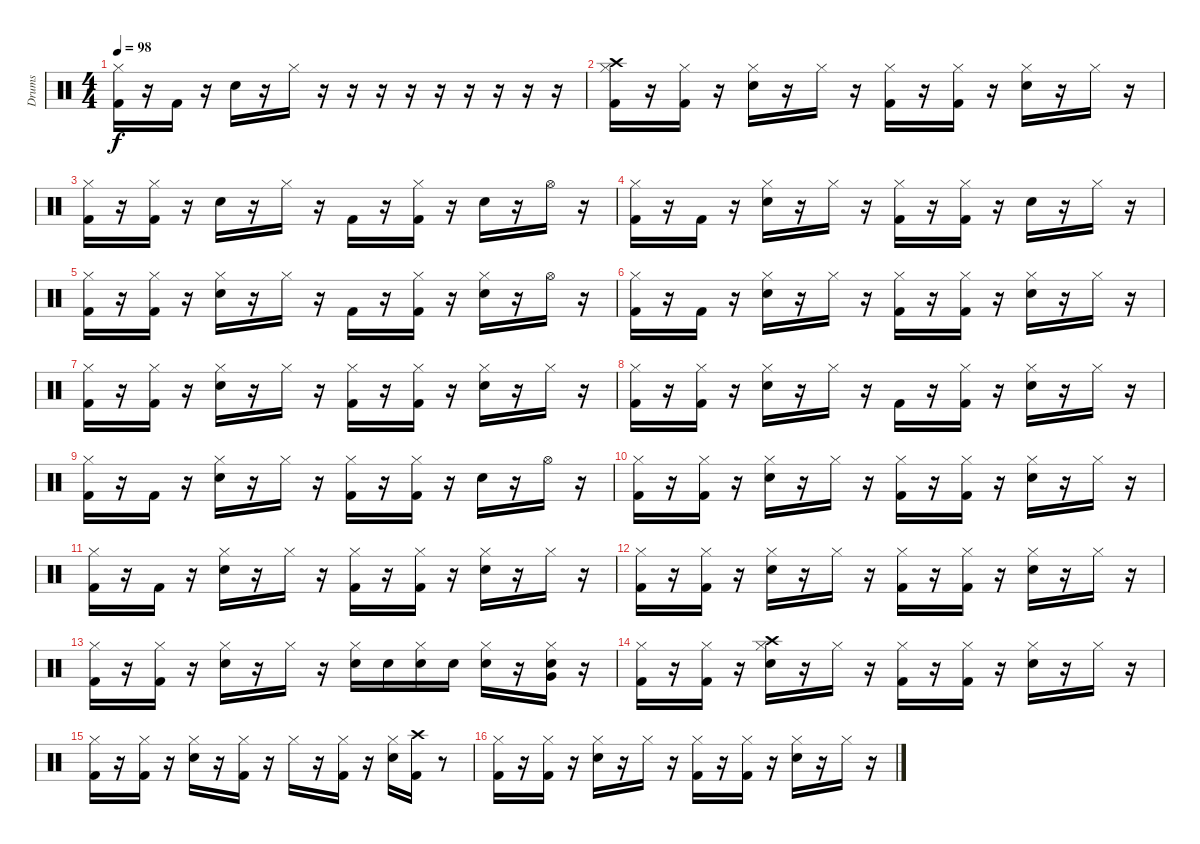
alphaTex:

\track ("Drums" "Drums") {instrument percussion}
\staff {score}
\articulation defaults
\ts (4 4)
\tempo 98
\clef neutral
\ks c
("Kick (hit) 2" "Hi-Hat (closed)").16{dy f} r.16 "Kick (hit) 2".16 r.16 "Snare (hit) 2".16 r.16 "Hi-Hat (closed)".16 r.16 r.16 r.16 r.16 r.16 r.16 r.16 r.16 r.16 |
("Kick (hit) 2" "Hi-Hat (closed)" "Crash high (hit)").16 r.16 ("Kick (hit) 2" "Hi-Hat (closed)").16 r.16 ("Snare (hit) 2" "Hi-Hat (closed)").16 r.16 "Hi-Hat (closed)".16 r.16 ("Kick (hit) 2" "Hi-Hat (closed)").16 r.16 ("Kick (hit) 2" "Hi-Hat (closed)").16 r.16 ("Snare (hit) 2" "Hi-Hat (closed)").16 r.16 "Hi-Hat (closed)".16 r.16 |
("Kick (hit) 2" "Hi-Hat (closed)").16 r.16 ("Kick (hit) 2" "Hi-Hat (closed)").16 r.16 "Snare (hit) 2".16 r.16 "Hi-Hat (closed)".16 r.16 "Kick (hit) 2".16 r.16 ("Kick (hit) 2" "Hi-Hat (closed)").16 r.16 "Snare (hit) 2".16 r.16 "Hi-Hat (open)".16 r.16 |
("Kick (hit) 2" "Hi-Hat (closed)").16 r.16 "Kick (hit) 2".16 r.16 ("Snare (hit) 2" "Hi-Hat (closed)").16 r.16 "Hi-Hat (closed)".16 r.16 ("Kick (hit) 2" "Hi-Hat (closed)").16 r.16 ("Kick (hit) 2" "Hi-Hat (closed)").16 r.16 "Snare (hit) 2".16 r.16 "Hi-Hat (closed)".16 r.16 |
("Kick (hit) 2" "Hi-Hat (closed)").16 r.16 ("Kick (hit) 2" "Hi-Hat (closed)").16 r.16 ("Snare (hit) 2" "Hi-Hat (closed)").16 r.16 "Hi-Hat (closed)".16 r.16 "Kick (hit) 2".16 r.16 ("Kick (hit) 2" "Hi-Hat (closed)").16 r.16 ("Snare (hit) 2" "Hi-Hat (closed)").16 r.16 "Hi-Hat (open)".16 r.16 |
("Kick (hit) 2" "Hi-Hat (closed)").16 r.16 "Kick (hit) 2".16 r.16 ("Snare (hit) 2" "Hi-Hat (closed)").16 r.16 "Hi-Hat (closed)".16 r.16 ("Kick (hit) 2" "Hi-Hat (closed)").16 r.16 ("Kick (hit) 2" "Hi-Hat (closed)").16 r.16 ("Snare (hit) 2" "Hi-Hat (closed)").16 r.16 "Hi-Hat (closed)".16 r.16 |
("Kick (hit) 2" "Hi-Hat (closed)").16 r.16 ("Kick (hit) 2" "Hi-Hat (closed)").16 r.16 ("Snare (hit) 2" "Hi-Hat (closed)").16 r.16 "Hi-Hat (closed)".16 r.16 ("Kick (hit) 2" "Hi-Hat (closed)").16 r.16 ("Kick (hit) 2" "Hi-Hat (closed)").16 r.16 ("Snare (hit) 2" "Hi-Hat (closed)").16 r.16 "Hi-Hat (closed)".16 r.16 |
("Kick (hit) 2" "Hi-Hat (closed)").16 r.16 ("Kick (hit) 2" "Hi-Hat (closed)").16 r.16 ("Snare (hit) 2" "Hi-Hat (closed)").16 r.16 "Hi-Hat (closed)".16 r.16 "Kick (hit) 2".16 r.16 ("Kick (hit) 2" "Hi-Hat (closed)").16 r.16 ("Snare (hit) 2" "Hi-Hat (closed)").16 r.16 "Hi-Hat (closed)".16 r.16 |
("Kick (hit) 2" "Hi-Hat (closed)").16 r.16 "Kick (hit) 2".16 r.16 ("Snare (hit) 2" "Hi-Hat (closed)").16 r.16 "Hi-Hat (closed)".16 r.16 ("Kick (hit) 2" "Hi-Hat (closed)").16 r.16 ("Kick (hit) 2" "Hi-Hat (closed)").16 r.16 "Snare (hit) 2".16 r.16 "Hi-Hat (open)".16 r.16 |
("Kick (hit) 2" "Hi-Hat (closed)").16 r.16 ("Kick (hit) 2" "Hi-Hat (closed)").16 r.16 ("Snare (hit) 2" "Hi-Hat (closed)").16 r.16 "Hi-Hat (closed)".16 r.16 ("Kick (hit) 2" "Hi-Hat (closed)").16 r.16 ("Kick (hit) 2" "Hi-Hat (closed)").16 r.16 ("Snare (hit) 2" "Hi-Hat (closed)").16 r.16 "Hi-Hat (closed)".16 r.16 |
("Kick (hit) 2" "Hi-Hat (closed)").16 r.16 "Kick (hit) 2".16 r.16 ("Snare (hit) 2" "Hi-Hat (closed)").16 r.16 "Hi-Hat (closed)".16 r.16 ("Kick (hit) 2" "Hi-Hat (closed)").16 r.16 ("Kick (hit) 2" "Hi-Hat (closed)").16 r.16 ("Snare (hit) 2" "Hi-Hat (closed)").16 r.16 "Hi-Hat (closed)".16 r.16 |
("Kick (hit) 2" "Hi-Hat (closed)").16 r.16 ("Kick (hit) 2" "Hi-Hat (closed)").16 r.16 ("Snare (hit) 2" "Hi-Hat (closed)").16 r.16 "Hi-Hat (closed)".16 r.16 ("Kick (hit) 2" "Hi-Hat (closed)").16 r.16 ("Kick (hit) 2" "Hi-Hat (closed)").16 r.16 ("Snare (hit) 2" "Hi-Hat (closed)").16 r.16 "Hi-Hat (closed)".16 r.16 |
("Kick (hit) 2" "Hi-Hat (closed)").16 r.16 ("Kick (hit) 2" "Hi-Hat (closed)").16 r.16 ("Snare (hit) 2" "Hi-Hat (closed)").16 r.16 "Hi-Hat (closed)".16 r.16 ("Snare (hit) 2" "Hi-Hat (closed)").16 "Snare (hit) 2".16 ("Snare (hit) 2" "Hi-Hat (closed)").16 "Snare (hit) 2".16 ("Snare (hit) 2" "Hi-Hat (closed)").16 r.16 ("Snare (hit) 2" "Hi-Hat (closed)" "Very Low Tom (hit)").16 r.16 |
("Kick (hit) 2" "Hi-Hat (closed)").16 r.16 ("Kick (hit) 2" "Hi-Hat (closed)").16 r.16 ("Snare (hit) 2" "Hi-Hat (closed)" "Crash high (hit)").16 r.16 "Hi-Hat (closed)".16 r.16 ("Kick (hit) 2" "Hi-Hat (closed)").16 r.16 ("Kick (hit) 2" "Hi-Hat (closed)").16 r.16 ("Snare (hit) 2" "Hi-Hat (closed)").16 r.16 "Hi-Hat (closed)".16 r.16 |
("Kick (hit) 2" "Hi-Hat (closed)").16 r.16 ("Kick (hit) 2" "Hi-Hat (closed)").16 r.16 ("Snare (hit) 2" "Hi-Hat (closed)").16 r.16 ("Kick (hit) 2" "Hi-Hat (closed)").16 r.16 "Hi-Hat (closed)".16 r.16 ("Kick (hit) 2" "Hi-Hat (closed)").16 r.16 ("Snare (hit) 2" "Hi-Hat (closed)").16 ("Kick (hit) 2" "Crash high (hit)").16 r.8 |
("Kick (hit) 2" "Hi-Hat (closed)").16 r.16 ("Kick (hit) 2" "Hi-Hat (closed)").16 r.16 ("Snare (hit) 2" "Hi-Hat (closed)").16 r.16 "Hi-Hat (closed)".16 r.16 ("Kick (hit) 2" "Hi-Hat (closed)").16 r.16 ("Kick (hit) 2" "Hi-Hat (closed)").16 r.16 ("Snare (hit) 2" "Hi-Hat (closed)").16 r.16 "Hi-Hat (closed)".16 r.16
